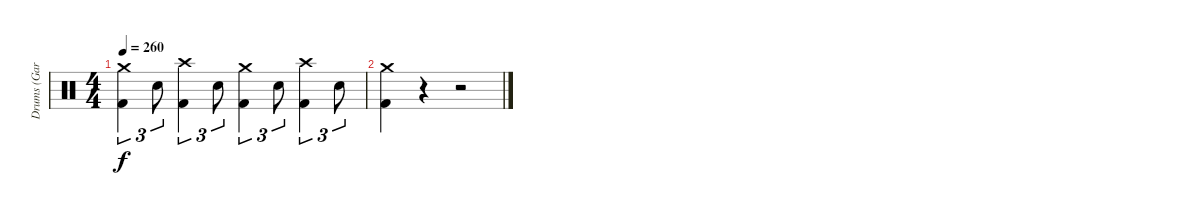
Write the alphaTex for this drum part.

\track ("Drums (Gar Samuelson)" "Drums (Gar") {instrument percussion}
\staff {score}
\articulation defaults
\ts (4 4)
\tempo 260
\clef neutral
\ks c
("Crash medium (hit)" "Kick (hit) 2").4{tu (3 2) dy f} "Snare (hit) 2".8{tu (3 2)} ("Crash high (hit)" "Kick (hit) 2").4{tu (3 2)} "Snare (hit) 2".8{tu (3 2)} ("Crash medium (hit)" "Kick (hit) 2").4{tu (3 2)} "Snare (hit) 2".8{tu (3 2)} ("Crash high (hit)" "Kick (hit) 2").4{tu (3 2)} "Snare (hit) 2".8{tu (3 2)} |
("Crash medium (hit)" "Kick (hit) 2").4 r.4 r.2
